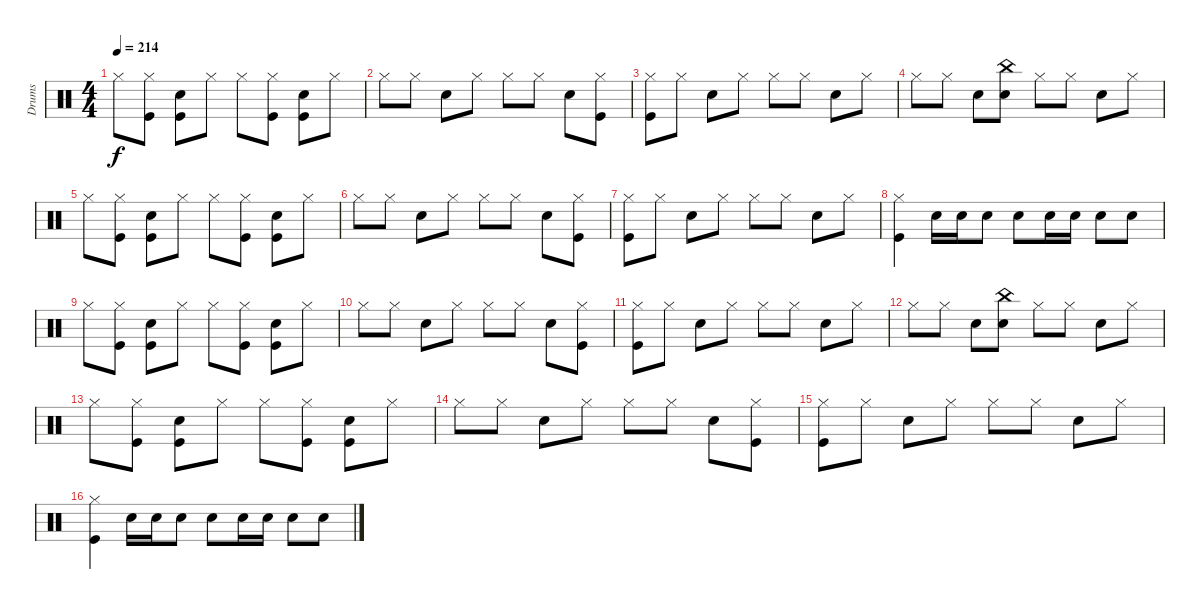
\track ("Drums" "Drums") {instrument percussion}
\staff {score}
\articulation defaults
\ts (4 4)
\tempo 214
\clef neutral
\ks c "Hi-Hat (closed)".8{dy f}
("Hi-Hat (closed)" "Kick (hit)").8 ("Snare (hit) 2" "Kick (hit)").8 "Hi-Hat (closed)".8 "Hi-Hat (closed)".8 ("Hi-Hat (closed)" "Kick (hit)").8 ("Snare (hit) 2" "Kick (hit)").8 "Hi-Hat (closed)".8 |
"Hi-Hat (closed)".8 "Hi-Hat (closed)".8 "Snare (hit) 2".8 "Hi-Hat (closed)".8 "Hi-Hat (closed)".8 "Hi-Hat (closed)".8 "Snare (hit) 2".8 ("Hi-Hat (closed)" "Kick (hit)").8 |
("Hi-Hat (closed)" "Kick (hit)").8 "Hi-Hat (closed)".8 "Snare (hit) 2".8 "Hi-Hat (closed)".8 "Hi-Hat (closed)".8 "Hi-Hat (closed)".8 "Snare (hit) 2".8 "Hi-Hat (closed)".8 |
"Hi-Hat (closed)".8 "Hi-Hat (closed)".8 "Snare (hit) 2".8 ("China (hit)" "Snare (hit) 2").8 "Hi-Hat (closed)".8 "Hi-Hat (closed)".8 "Snare (hit) 2".8 "Hi-Hat (closed)".8 |
"Hi-Hat (closed)".8 ("Hi-Hat (closed)" "Kick (hit)").8 ("Snare (hit) 2" "Kick (hit)").8 "Hi-Hat (closed)".8 "Hi-Hat (closed)".8 ("Hi-Hat (closed)" "Kick (hit)").8 ("Snare (hit) 2" "Kick (hit)").8 "Hi-Hat (closed)".8 |
"Hi-Hat (closed)".8 "Hi-Hat (closed)".8 "Snare (hit) 2".8 "Hi-Hat (closed)".8 "Hi-Hat (closed)".8 "Hi-Hat (closed)".8 "Snare (hit) 2".8 ("Hi-Hat (closed)" "Kick (hit)").8 |
("Hi-Hat (closed)" "Kick (hit)").8 "Hi-Hat (closed)".8 "Snare (hit) 2".8 "Hi-Hat (closed)".8 "Hi-Hat (closed)".8 "Hi-Hat (closed)".8 "Snare (hit) 2".8 "Hi-Hat (closed)".8 |
("Hi-Hat (closed)" "Kick (hit)").4 "Snare (hit) 2".16 "Snare (hit) 2".16 "Snare (hit) 2".8 "Snare (hit) 2".8 "Snare (hit) 2".16 "Snare (hit) 2".16 "Snare (hit) 2".8 "Snare (hit) 2".8 |
"Hi-Hat (closed)".8 ("Hi-Hat (closed)" "Kick (hit)").8 ("Snare (hit) 2" "Kick (hit)").8 "Hi-Hat (closed)".8 "Hi-Hat (closed)".8 ("Hi-Hat (closed)" "Kick (hit)").8 ("Snare (hit) 2" "Kick (hit)").8 "Hi-Hat (closed)".8 |
"Hi-Hat (closed)".8 "Hi-Hat (closed)".8 "Snare (hit) 2".8 "Hi-Hat (closed)".8 "Hi-Hat (closed)".8 "Hi-Hat (closed)".8 "Snare (hit) 2".8 ("Hi-Hat (closed)" "Kick (hit)").8 |
("Hi-Hat (closed)" "Kick (hit)").8 "Hi-Hat (closed)".8 "Snare (hit) 2".8 "Hi-Hat (closed)".8 "Hi-Hat (closed)".8 "Hi-Hat (closed)".8 "Snare (hit) 2".8 "Hi-Hat (closed)".8 |
"Hi-Hat (closed)".8 "Hi-Hat (closed)".8 "Snare (hit) 2".8 ("China (hit)" "Snare (hit) 2").8 "Hi-Hat (closed)".8 "Hi-Hat (closed)".8 "Snare (hit) 2".8 "Hi-Hat (closed)".8 |
"Hi-Hat (closed)".8 ("Hi-Hat (closed)" "Kick (hit)").8 ("Snare (hit) 2" "Kick (hit)").8 "Hi-Hat (closed)".8 "Hi-Hat (closed)".8 ("Hi-Hat (closed)" "Kick (hit)").8 ("Snare (hit) 2" "Kick (hit)").8 "Hi-Hat (closed)".8 |
"Hi-Hat (closed)".8 "Hi-Hat (closed)".8 "Snare (hit) 2".8 "Hi-Hat (closed)".8 "Hi-Hat (closed)".8 "Hi-Hat (closed)".8 "Snare (hit) 2".8 ("Hi-Hat (closed)" "Kick (hit)").8 |
("Hi-Hat (closed)" "Kick (hit)").8 "Hi-Hat (closed)".8 "Snare (hit) 2".8 "Hi-Hat (closed)".8 "Hi-Hat (closed)".8 "Hi-Hat (closed)".8 "Snare (hit) 2".8 "Hi-Hat (closed)".8 |
("Hi-Hat (closed)" "Kick (hit)").4 "Snare (hit) 2".16 "Snare (hit) 2".16 "Snare (hit) 2".8 "Snare (hit) 2".8 "Snare (hit) 2".16 "Snare (hit) 2".16 "Snare (hit) 2".8 "Snare (hit) 2".8
